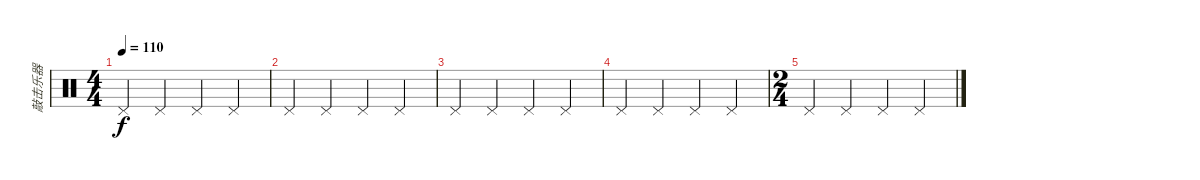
\track ("敲击乐器" "敲击乐器") {instrument percussion}
\staff {score}
\articulation defaults
\ts (4 4)
\tempo 110
\clef neutral
\ks c "Pedal Hi-Hat (hit)".4{dy f} "Pedal Hi-Hat (hit)".4 "Pedal Hi-Hat (hit)".4 "Pedal Hi-Hat (hit)".4
|
"Pedal Hi-Hat (hit)".4 "Pedal Hi-Hat (hit)".4 "Pedal Hi-Hat (hit)".4 "Pedal Hi-Hat (hit)".4 |
"Pedal Hi-Hat (hit)".4 "Pedal Hi-Hat (hit)".4 "Pedal Hi-Hat (hit)".4 "Pedal Hi-Hat (hit)".4 |
"Pedal Hi-Hat (hit)".4 "Pedal Hi-Hat (hit)".4 "Pedal Hi-Hat (hit)".4 "Pedal Hi-Hat (hit)".4 |
\ts (2 4)
"Pedal Hi-Hat (hit)".4 "Pedal Hi-Hat (hit)".4 "Pedal Hi-Hat (hit)".4 "Pedal Hi-Hat (hit)".4
